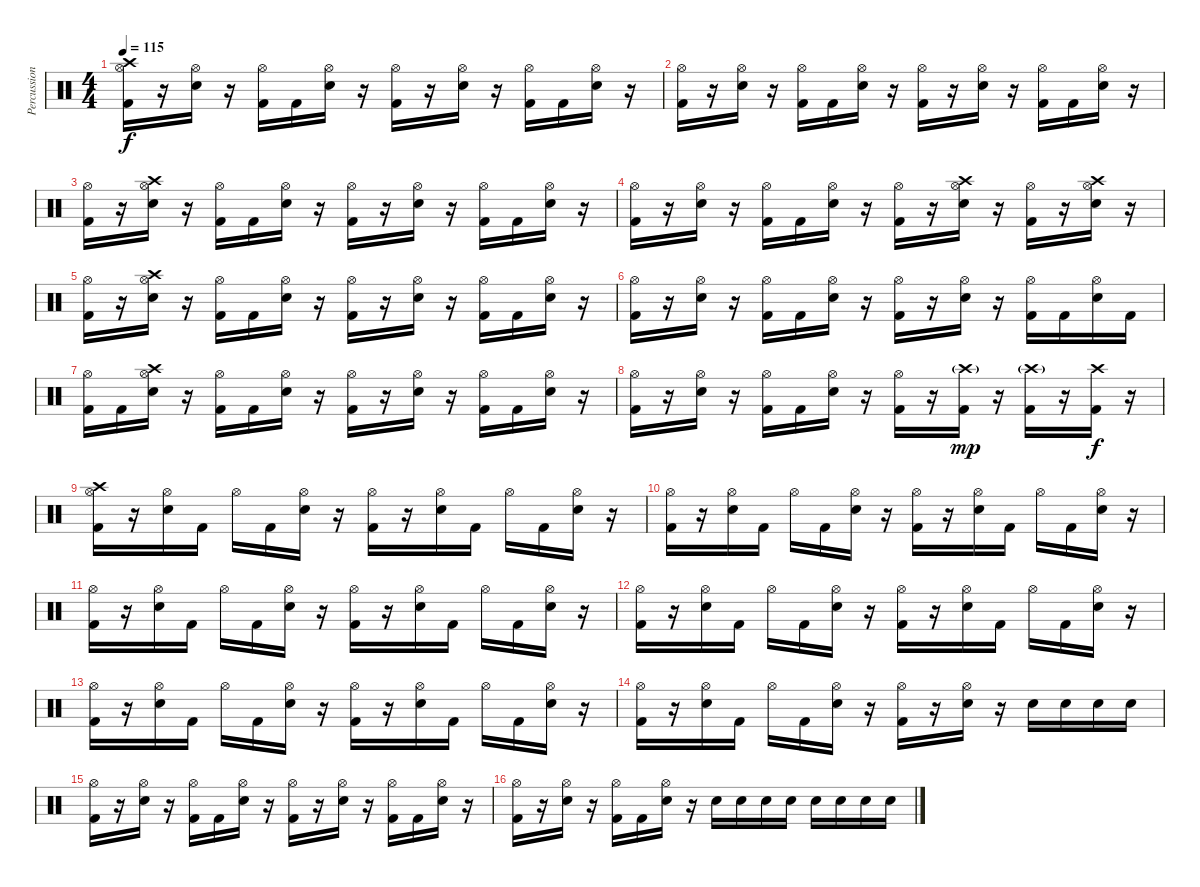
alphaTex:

\track ("Percussion" "Percussion") {instrument percussion}
\staff {score}
\articulation defaults
\ts (4 4)
\tempo 115
\clef neutral
\ks c
("Crash high (hit)" "Hi-Hat (open)" "Kick (hit) 2").16{dy f} r.16 ("Hi-Hat (open)" "Electric Snare (hit)").16 r.16 ("Hi-Hat (open)" "Kick (hit) 2").16 "Kick (hit) 2".16 ("Hi-Hat (open)" "Electric Snare (hit)").16 r.16 ("Hi-Hat (open)" "Kick (hit) 2").16 r.16 ("Hi-Hat (open)" "Electric Snare (hit)").16 r.16 ("Hi-Hat (open)" "Kick (hit) 2").16 "Kick (hit) 2".16 ("Hi-Hat (open)" "Electric Snare (hit)").16 r.16 |
("Hi-Hat (open)" "Kick (hit) 2").16 r.16 ("Hi-Hat (open)" "Electric Snare (hit)").16 r.16 ("Hi-Hat (open)" "Kick (hit) 2").16 "Kick (hit) 2".16 ("Hi-Hat (open)" "Electric Snare (hit)").16 r.16 ("Hi-Hat (open)" "Kick (hit) 2").16 r.16 ("Hi-Hat (open)" "Electric Snare (hit)").16 r.16 ("Hi-Hat (open)" "Kick (hit) 2").16 "Kick (hit) 2".16 ("Hi-Hat (open)" "Electric Snare (hit)").16 r.16 |
("Hi-Hat (open)" "Kick (hit) 2").16 r.16 ("Hi-Hat (open)" "Crash high (hit)" "Electric Snare (hit)").16 r.16 ("Hi-Hat (open)" "Kick (hit) 2").16 "Kick (hit) 2".16 ("Hi-Hat (open)" "Electric Snare (hit)").16 r.16 ("Hi-Hat (open)" "Kick (hit) 2").16 r.16 ("Hi-Hat (open)" "Electric Snare (hit)").16 r.16 ("Hi-Hat (open)" "Kick (hit) 2").16 "Kick (hit) 2".16 ("Hi-Hat (open)" "Electric Snare (hit)").16 r.16 |
("Hi-Hat (open)" "Kick (hit) 2").16 r.16 ("Hi-Hat (open)" "Electric Snare (hit)").16 r.16 ("Hi-Hat (open)" "Kick (hit) 2").16 "Kick (hit) 2".16 ("Hi-Hat (open)" "Electric Snare (hit)").16 r.16 ("Hi-Hat (open)" "Kick (hit) 2").16 r.16 ("Hi-Hat (open)" "Crash high (hit)" "Electric Snare (hit)").16 r.16 ("Hi-Hat (open)" "Kick (hit) 2").16 r.16 ("Hi-Hat (open)" "Crash high (hit)" "Electric Snare (hit)").16 r.16 |
("Hi-Hat (open)" "Kick (hit) 2").16 r.16 ("Hi-Hat (open)" "Crash high (hit)" "Electric Snare (hit)").16 r.16 ("Hi-Hat (open)" "Kick (hit) 2").16 "Kick (hit) 2".16 ("Hi-Hat (open)" "Electric Snare (hit)").16 r.16 ("Hi-Hat (open)" "Kick (hit) 2").16 r.16 ("Hi-Hat (open)" "Electric Snare (hit)").16 r.16 ("Hi-Hat (open)" "Kick (hit) 2").16 "Kick (hit) 2".16 ("Hi-Hat (open)" "Electric Snare (hit)").16 r.16 |
("Hi-Hat (open)" "Kick (hit) 2").16 r.16 ("Hi-Hat (open)" "Electric Snare (hit)").16 r.16 ("Hi-Hat (open)" "Kick (hit) 2").16 "Kick (hit) 2".16 ("Hi-Hat (open)" "Electric Snare (hit)").16 r.16 ("Hi-Hat (open)" "Kick (hit) 2").16 r.16 ("Hi-Hat (open)" "Electric Snare (hit)").16 r.16 ("Hi-Hat (open)" "Kick (hit) 2").16 "Kick (hit) 2".16 ("Hi-Hat (open)" "Electric Snare (hit)").16 "Kick (hit) 2".16 |
("Hi-Hat (open)" "Kick (hit) 2").16 "Kick (hit) 2".16 ("Hi-Hat (open)" "Crash high (hit)" "Electric Snare (hit)").16 r.16 ("Hi-Hat (open)" "Kick (hit) 2").16 "Kick (hit) 2".16 ("Hi-Hat (open)" "Electric Snare (hit)").16 r.16 ("Hi-Hat (open)" "Kick (hit) 2").16 r.16 ("Hi-Hat (open)" "Electric Snare (hit)").16 r.16 ("Hi-Hat (open)" "Kick (hit) 2").16 "Kick (hit) 2".16 ("Hi-Hat (open)" "Electric Snare (hit)").16 r.16 |
("Hi-Hat (open)" "Kick (hit) 2").16 r.16 ("Hi-Hat (open)" "Electric Snare (hit)").16 r.16 ("Hi-Hat (open)" "Kick (hit) 2").16 "Kick (hit) 2".16 ("Hi-Hat (open)" "Electric Snare (hit)").16 r.16 ("Hi-Hat (open)" "Kick (hit) 2").16 r.16 ("Crash high (hit)"{g} "Kick (hit) 2").16{dy mp} r.16 ("Crash high (hit)"{g} "Kick (hit) 2").16 r.16 ("Crash high (hit)" "Kick (hit) 2").16{dy f} r.16 |
("Hi-Hat (open)" "Crash high (hit)" "Kick (hit) 2").16 r.16 ("Hi-Hat (open)" "Electric Snare (hit)").16 "Kick (hit) 2".16 "Hi-Hat (open)".16 "Kick (hit) 2".16 ("Hi-Hat (open)" "Electric Snare (hit)").16 r.16 ("Hi-Hat (open)" "Kick (hit) 2").16 r.16 ("Hi-Hat (open)" "Electric Snare (hit)").16 "Kick (hit) 2".16 "Hi-Hat (open)".16 "Kick (hit) 2".16 ("Hi-Hat (open)" "Electric Snare (hit)").16 r.16 |
("Hi-Hat (open)" "Kick (hit) 2").16 r.16 ("Hi-Hat (open)" "Electric Snare (hit)").16 "Kick (hit) 2".16 "Hi-Hat (open)".16 "Kick (hit) 2".16 ("Hi-Hat (open)" "Electric Snare (hit)").16 r.16 ("Hi-Hat (open)" "Kick (hit) 2").16 r.16 ("Hi-Hat (open)" "Electric Snare (hit)").16 "Kick (hit) 2".16 "Hi-Hat (open)".16 "Kick (hit) 2".16 ("Hi-Hat (open)" "Electric Snare (hit)").16 r.16 |
("Hi-Hat (open)" "Kick (hit) 2").16 r.16 ("Hi-Hat (open)" "Electric Snare (hit)").16 "Kick (hit) 2".16 "Hi-Hat (open)".16 "Kick (hit) 2".16 ("Hi-Hat (open)" "Electric Snare (hit)").16 r.16 ("Hi-Hat (open)" "Kick (hit) 2").16 r.16 ("Hi-Hat (open)" "Electric Snare (hit)").16 "Kick (hit) 2".16 "Hi-Hat (open)".16 "Kick (hit) 2".16 ("Hi-Hat (open)" "Electric Snare (hit)").16 r.16 |
("Hi-Hat (open)" "Kick (hit) 2").16 r.16 ("Hi-Hat (open)" "Electric Snare (hit)").16 "Kick (hit) 2".16 "Hi-Hat (open)".16 "Kick (hit) 2".16 ("Hi-Hat (open)" "Electric Snare (hit)").16 r.16 ("Hi-Hat (open)" "Kick (hit) 2").16 r.16 ("Hi-Hat (open)" "Electric Snare (hit)").16 "Kick (hit) 2".16 "Hi-Hat (open)".16 "Kick (hit) 2".16 ("Hi-Hat (open)" "Electric Snare (hit)").16 r.16 |
("Hi-Hat (open)" "Kick (hit) 2").16 r.16 ("Hi-Hat (open)" "Electric Snare (hit)").16 "Kick (hit) 2".16 "Hi-Hat (open)".16 "Kick (hit) 2".16 ("Hi-Hat (open)" "Electric Snare (hit)").16 r.16 ("Hi-Hat (open)" "Kick (hit) 2").16 r.16 ("Hi-Hat (open)" "Electric Snare (hit)").16 "Kick (hit) 2".16 "Hi-Hat (open)".16 "Kick (hit) 2".16 ("Hi-Hat (open)" "Electric Snare (hit)").16 r.16 |
("Hi-Hat (open)" "Kick (hit) 2").16 r.16 ("Hi-Hat (open)" "Electric Snare (hit)").16 "Kick (hit) 2".16 "Hi-Hat (open)".16 "Kick (hit) 2".16 ("Hi-Hat (open)" "Electric Snare (hit)").16 r.16 ("Hi-Hat (open)" "Kick (hit) 2").16 r.16 ("Hi-Hat (open)" "Electric Snare (hit)").16 r.16 "Electric Snare (hit)".16 "Electric Snare (hit)".16 "Electric Snare (hit)".16 "Electric Snare (hit)".16 |
("Hi-Hat (open)" "Kick (hit) 2").16 r.16 ("Hi-Hat (open)" "Electric Snare (hit)").16 r.16 ("Hi-Hat (open)" "Kick (hit) 2").16 "Kick (hit) 2".16 ("Hi-Hat (open)" "Electric Snare (hit)").16 r.16 ("Hi-Hat (open)" "Kick (hit) 2").16 r.16 ("Hi-Hat (open)" "Electric Snare (hit)").16 r.16 ("Hi-Hat (open)" "Kick (hit) 2").16 "Kick (hit) 2".16 ("Hi-Hat (open)" "Electric Snare (hit)").16 r.16 |
("Hi-Hat (open)" "Kick (hit) 2").16 r.16 ("Hi-Hat (open)" "Electric Snare (hit)").16 r.16 ("Hi-Hat (open)" "Kick (hit) 2").16 "Kick (hit) 2".16 ("Hi-Hat (open)" "Electric Snare (hit)").16 r.16 "Electric Snare (hit)".16 "Electric Snare (hit)".16 "Electric Snare (hit)".16 "Electric Snare (hit)".16 "Electric Snare (hit)".16 "Electric Snare (hit)".16 "Electric Snare (hit)".16 "Electric Snare (hit)".16
